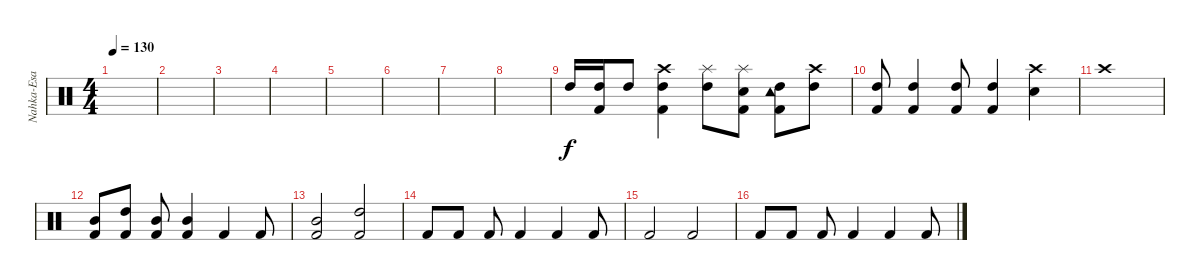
\track ("Nahka-Esa" "Nahka-Esa") {instrument percussion}
\staff {score}
\articulation defaults
\ts (4 4)
\tempo 130
\clef neutral
\ks c
|
|
|
|
|
|
|
|
"High Tom (hit)".16 ("High Tom (hit)" "Kick (hit) 2").16 "High Tom (hit)".8 ("Crash high (hit)" "High Tom (hit)" "Kick (hit) 2").4 ("Splash (hit)" "High Tom (hit)").8 ("Splash (hit)" "Snare (hit)" "Kick (hit) 2").8 ("Tambourine (hit)" "High Tom (hit)" "Kick (hit) 2").8 ("Crash high (hit)" "High Tom (hit)").8 |
("High Tom (hit)" "Kick (hit) 2").8 ("High Tom (hit)" "Kick (hit) 2").4 ("High Tom (hit)" "Kick (hit) 2").8 ("High Tom (hit)" "Kick (hit) 2").4 ("Snare (hit)" "Crash high (hit)").4 |
"Crash high (hit)".1 |
("Mid Tom (hit)" "Kick (hit) 2").8 ("High Tom (hit)" "Kick (hit) 2").8 ("Mid Tom (hit)" "Kick (hit) 2").8 ("Mid Tom (hit)" "Kick (hit) 2").4 "Kick (hit) 2".4 "Kick (hit) 2".8 |
("Mid Tom (hit)" "Kick (hit) 2").2 ("High Tom (hit)" "Kick (hit) 2").2 |
"Kick (hit) 2".8 "Kick (hit) 2".8 "Kick (hit) 2".8 "Kick (hit) 2".4 "Kick (hit) 2".4 "Kick (hit) 2".8 |
"Kick (hit) 2".2 "Kick (hit) 2".2 |
"Kick (hit) 2".8 "Kick (hit) 2".8 "Kick (hit) 2".8 "Kick (hit) 2".4 "Kick (hit) 2".4 "Kick (hit) 2".8
